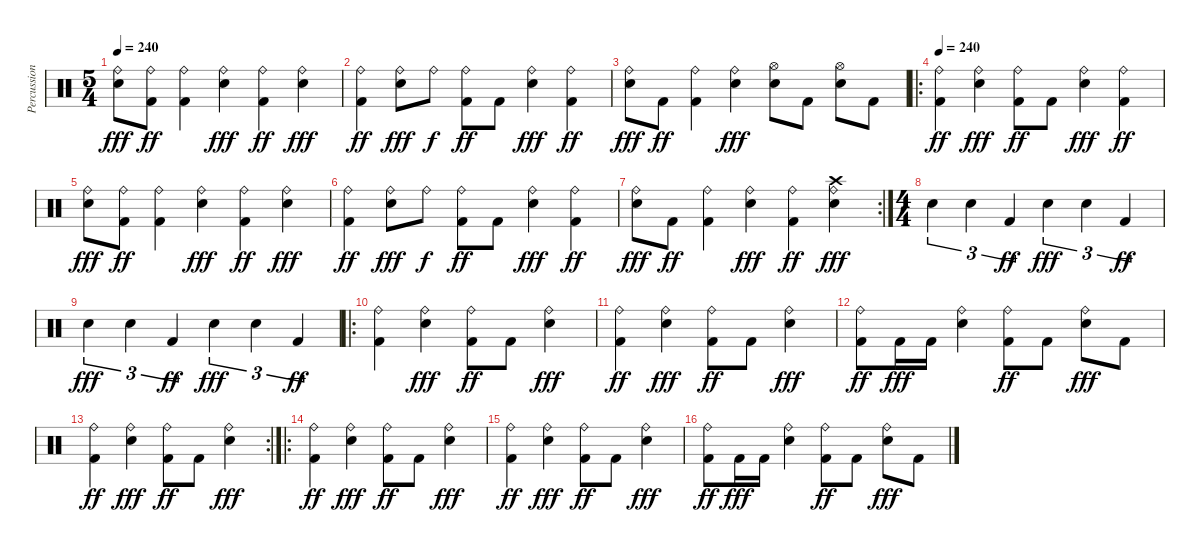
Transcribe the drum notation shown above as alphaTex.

\track ("Percussion" "Percussion") {instrument percussion}
\staff {score}
\articulation defaults
\ts (5 4)
\tempo 240
\clef neutral
\ks c
("Ride (bell)" "Snare (hit) 2").8{dy fff} ("Ride (bell)" "Kick (hit) 2").8{dy ff} ("Ride (bell)" "Kick (hit) 2").4 ("Ride (bell)" "Snare (hit) 2").4{dy fff} ("Ride (bell)" "Kick (hit) 2").4{dy ff} ("Ride (bell)" "Snare (hit) 2").4{dy fff} |
("Ride (bell)" "Kick (hit) 2").4{dy ff} ("Ride (bell)" "Snare (hit) 2").8{dy fff} "Ride (bell)".8{dy f} ("Ride (bell)" "Kick (hit) 2").8{dy ff} "Kick (hit) 2".8 ("Ride (bell)" "Snare (hit) 2").4{dy fff} ("Ride (bell)" "Kick (hit) 2").4{dy ff} |
("Ride (bell)" "Snare (hit) 2").8{dy fff} "Kick (hit) 2".8{dy ff} ("Ride (bell)" "Kick (hit) 2").4 ("Ride (bell)" "Snare (hit) 2").4{dy fff} ("Hi-Hat (open)" "Snare (hit) 2").8 "Kick (hit) 2".8 ("Hi-Hat (open)" "Snare (hit) 2").8 "Kick (hit) 2".8 |
\ro
\tempo 240
("Ride (bell)" "Kick (hit) 2").4{dy ff} ("Ride (bell)" "Snare (hit) 2").4{dy fff} ("Ride (bell)" "Kick (hit) 2").8{dy ff} "Kick (hit) 2".8 ("Ride (bell)" "Snare (hit) 2").4{dy fff} ("Ride (bell)" "Kick (hit) 2").4{dy ff} |
("Ride (bell)" "Snare (hit) 2").8{dy fff} ("Ride (bell)" "Kick (hit) 2").8{dy ff} ("Ride (bell)" "Kick (hit) 2").4 ("Ride (bell)" "Snare (hit) 2").4{dy fff} ("Ride (bell)" "Kick (hit) 2").4{dy ff} ("Ride (bell)" "Snare (hit) 2").4{dy fff} |
("Ride (bell)" "Kick (hit) 2").4{dy ff} ("Ride (bell)" "Snare (hit) 2").8{dy fff} "Ride (bell)".8{dy f} ("Ride (bell)" "Kick (hit) 2").8{dy ff} "Kick (hit) 2".8 ("Ride (bell)" "Snare (hit) 2").4{dy fff} ("Ride (bell)" "Kick (hit) 2").4{dy ff} |
\rc 2
("Ride (bell)" "Snare (hit) 2").8{dy fff} "Kick (hit) 2".8{dy ff} ("Ride (bell)" "Kick (hit) 2").4 ("Ride (bell)" "Snare (hit) 2").4{dy fff} ("Ride (bell)" "Kick (hit) 2").4{dy ff} ("Ride (bell)" "Crash high (hit)" "Snare (hit) 2").4{dy fff} |
\ts (4 4)
"Snare (hit) 2".4{tu (3 2)} "Snare (hit) 2".4{tu (3 2)} "Kick (hit) 2".4{tu (3 2) dy ff} "Snare (hit) 2".4{tu (3 2) dy fff} "Snare (hit) 2".4{tu (3 2)} "Kick (hit) 2".4{tu (3 2) dy ff} |
"Snare (hit) 2".4{tu (3 2) dy fff} "Snare (hit) 2".4{tu (3 2)} "Kick (hit) 2".4{tu (3 2) dy ff} "Snare (hit) 2".4{tu (3 2) dy fff} "Snare (hit) 2".4{tu (3 2)} "Kick (hit) 2".4{tu (3 2) dy ff} |
\ro
("Ride (bell)" "Kick (hit) 2").4 ("Ride (bell)" "Snare (hit) 2").4{dy fff} ("Ride (bell)" "Kick (hit) 2").8{dy ff} "Kick (hit) 2".8 ("Ride (bell)" "Snare (hit) 2").4{dy fff} |
("Ride (bell)" "Kick (hit) 2").4{dy ff} ("Ride (bell)" "Snare (hit) 2").4{dy fff} ("Ride (bell)" "Kick (hit) 2").8{dy ff} "Kick (hit) 2".8 ("Ride (bell)" "Snare (hit) 2").4{dy fff} |
("Ride (bell)" "Kick (hit) 2").8{dy ff} "Kick (hit) 2".16{dy fff} "Kick (hit) 2".16 ("Ride (bell)" "Snare (hit) 2").4 ("Ride (bell)" "Kick (hit) 2").8{dy ff} "Kick (hit) 2".8 ("Ride (bell)" "Snare (hit) 2").8{dy fff} "Kick (hit) 2".8 |
\rc 2
("Ride (bell)" "Kick (hit) 2").4{dy ff} ("Ride (bell)" "Snare (hit) 2").4{dy fff} ("Ride (bell)" "Kick (hit) 2").8{dy ff} "Kick (hit) 2".8 ("Ride (bell)" "Snare (hit) 2").4{dy fff} |
\ro
("Ride (bell)" "Kick (hit) 2").4{dy ff} ("Ride (bell)" "Snare (hit) 2").4{dy fff} ("Ride (bell)" "Kick (hit) 2").8{dy ff} "Kick (hit) 2".8 ("Ride (bell)" "Snare (hit) 2").4{dy fff} |
("Ride (bell)" "Kick (hit) 2").4{dy ff} ("Ride (bell)" "Snare (hit) 2").4{dy fff} ("Ride (bell)" "Kick (hit) 2").8{dy ff} "Kick (hit) 2".8 ("Ride (bell)" "Snare (hit) 2").4{dy fff} |
("Ride (bell)" "Kick (hit) 2").8{dy ff} "Kick (hit) 2".16{dy fff} "Kick (hit) 2".16 ("Ride (bell)" "Snare (hit) 2").4 ("Ride (bell)" "Kick (hit) 2").8{dy ff} "Kick (hit) 2".8 ("Ride (bell)" "Snare (hit) 2").8{dy fff} "Kick (hit) 2".8
